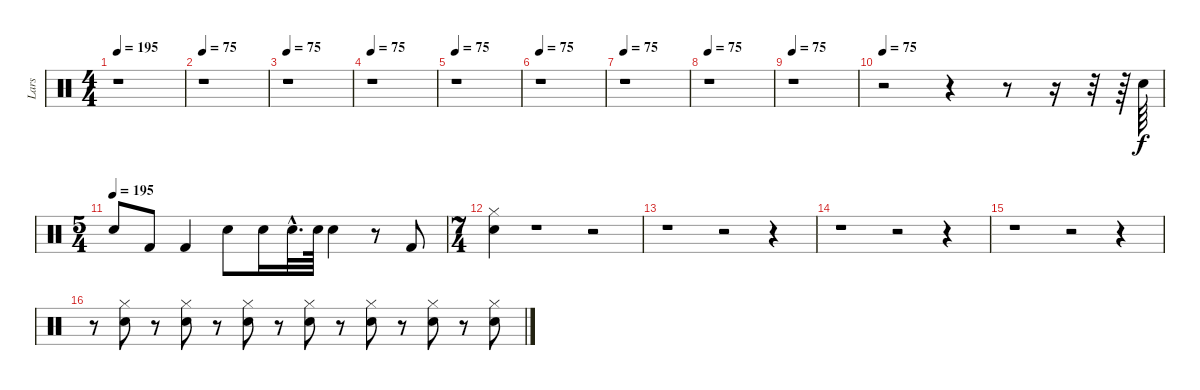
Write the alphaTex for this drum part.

\track ("Lars" "Lars") {instrument percussion}
\staff {score}
\articulation defaults
\ts (4 4)
\tempo 195
\tempo 75
\tempo 195
\clef neutral
\ks c
r.1{dy f} |
\tempo 75
r.1 |
\tempo 75
r.1 |
\tempo 75
r.1 |
\tempo 75
r.1 |
\tempo 75
r.1 |
\tempo 75
r.1 |
\tempo 75
r.1 |
\tempo 75
r.1 |
\tempo 75
r.2 r.4 r.8 r.16 r.32 r.64 "Snare (hit) 2".64 |
\ts (5 4)
\tempo (195)
"Snare (hit) 2".8 "Kick (hit) 2".8 "Kick (hit) 2".4 "Snare (hit) 2".8 "Snare (hit) 2".16 "Snare (hit) 2"{hac}.32{d} "Snare (hit) 2".64 "Snare (hit) 2".4 r.8 "Kick (hit) 2".8 |
\ts (7 4)
("Snare (hit) 2" "Hi-Hat (closed)").4 r.1 r.2 |
r.1 r.2 r.4 |
r.1 r.2 r.4 |
r.1 r.2 r.4 |
r.8 ("Snare (hit) 2" "Hi-Hat (closed)").8 r.8 ("Snare (hit) 2" "Hi-Hat (closed)").8 r.8 ("Snare (hit) 2" "Hi-Hat (closed)").8 r.8 ("Snare (hit) 2" "Hi-Hat (closed)").8 r.8 ("Snare (hit) 2" "Hi-Hat (closed)").8 r.8 ("Snare (hit) 2" "Hi-Hat (closed)").8 r.8 ("Snare (hit) 2" "Hi-Hat (closed)").8
